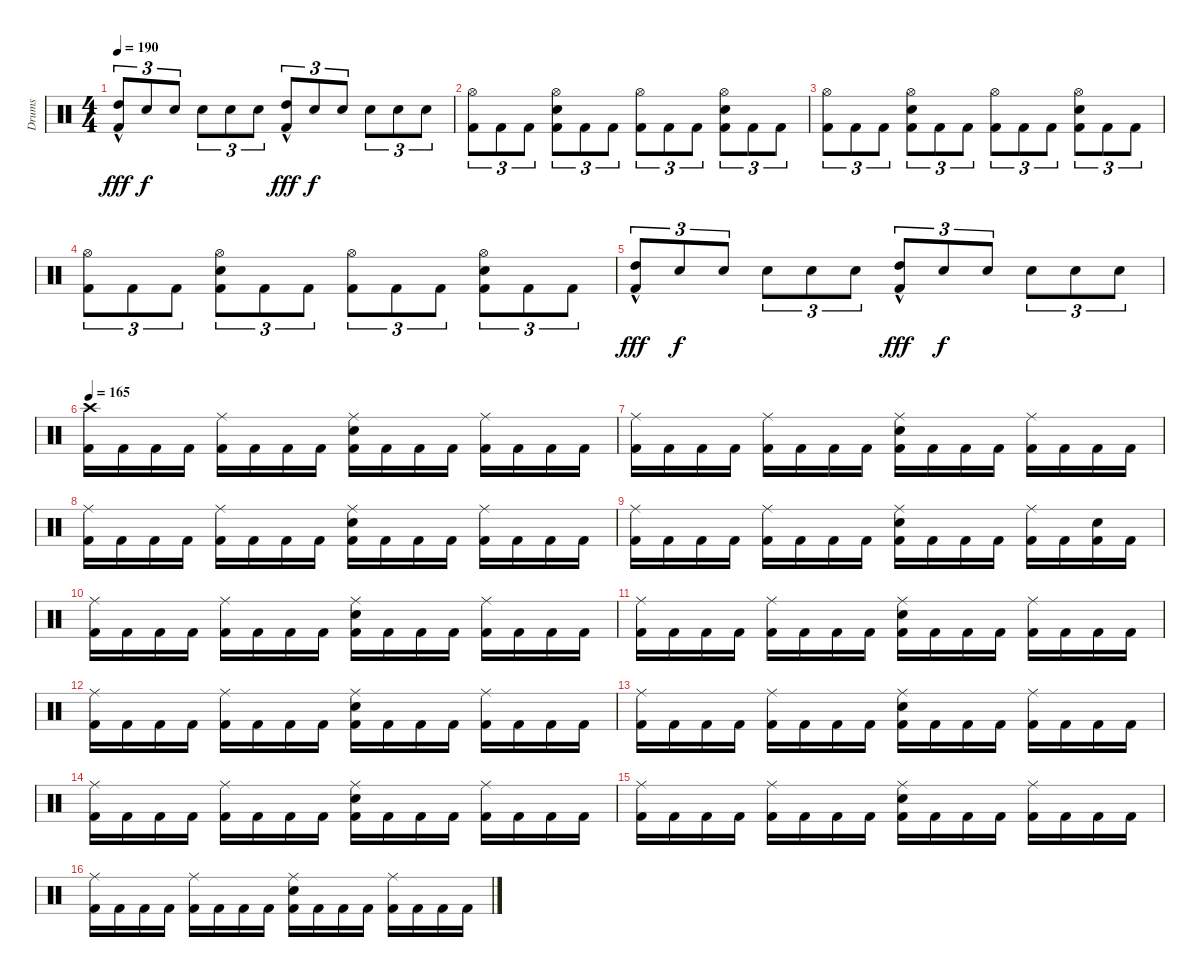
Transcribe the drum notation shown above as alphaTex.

\track ("Drums" "Drums") {instrument percussion}
\staff {score}
\articulation defaults
\ts (4 4)
\tempo 190
\clef neutral
\ks aminor
("Kick (hit) 2" "High Tom (hit)"{hac}).8{tu (3 2) dy fff} "Electric Snare (hit)".8{tu (3 2) dy f} "Electric Snare (hit)".8{tu (3 2)} "Electric Snare (hit)".8{tu (3 2)} "Electric Snare (hit)".8{tu (3 2)} "Electric Snare (hit)".8{tu (3 2)} ("Kick (hit) 2" "High Tom (hit)"{hac}).8{tu (3 2) dy fff} "Electric Snare (hit)".8{tu (3 2) dy f} "Electric Snare (hit)".8{tu (3 2)} "Electric Snare (hit)".8{tu (3 2)} "Electric Snare (hit)".8{tu (3 2)} "Electric Snare (hit)".8{tu (3 2)} |
("Kick (hit) 2" "Hi-Hat (open)").8{tu (3 2)} "Kick (hit) 2".8{tu (3 2)} "Kick (hit) 2".8{tu (3 2)} ("Kick (hit) 2" "Electric Snare (hit)" "Hi-Hat (open)").8{tu (3 2)} "Kick (hit) 2".8{tu (3 2)} "Kick (hit) 2".8{tu (3 2)} ("Kick (hit) 2" "Hi-Hat (open)").8{tu (3 2)} "Kick (hit) 2".8{tu (3 2)} "Kick (hit) 2".8{tu (3 2)} ("Kick (hit) 2" "Electric Snare (hit)" "Hi-Hat (open)").8{tu (3 2)} "Kick (hit) 2".8{tu (3 2)} "Kick (hit) 2".8{tu (3 2)} |
("Kick (hit) 2" "Hi-Hat (open)").8{tu (3 2)} "Kick (hit) 2".8{tu (3 2)} "Kick (hit) 2".8{tu (3 2)} ("Kick (hit) 2" "Electric Snare (hit)" "Hi-Hat (open)").8{tu (3 2)} "Kick (hit) 2".8{tu (3 2)} "Kick (hit) 2".8{tu (3 2)} ("Kick (hit) 2" "Hi-Hat (open)").8{tu (3 2)} "Kick (hit) 2".8{tu (3 2)} "Kick (hit) 2".8{tu (3 2)} ("Kick (hit) 2" "Electric Snare (hit)" "Hi-Hat (open)").8{tu (3 2)} "Kick (hit) 2".8{tu (3 2)} "Kick (hit) 2".8{tu (3 2)} |
("Kick (hit) 2" "Hi-Hat (open)").8{tu (3 2)} "Kick (hit) 2".8{tu (3 2)} "Kick (hit) 2".8{tu (3 2)} ("Kick (hit) 2" "Electric Snare (hit)" "Hi-Hat (open)").8{tu (3 2)} "Kick (hit) 2".8{tu (3 2)} "Kick (hit) 2".8{tu (3 2)} ("Kick (hit) 2" "Hi-Hat (open)").8{tu (3 2)} "Kick (hit) 2".8{tu (3 2)} "Kick (hit) 2".8{tu (3 2)} ("Kick (hit) 2" "Electric Snare (hit)" "Hi-Hat (open)").8{tu (3 2)} "Kick (hit) 2".8{tu (3 2)} "Kick (hit) 2".8{tu (3 2)} |
("Kick (hit) 2" "High Tom (hit)"{hac}).8{tu (3 2) dy fff} "Electric Snare (hit)".8{tu (3 2) dy f} "Electric Snare (hit)".8{tu (3 2)} "Electric Snare (hit)".8{tu (3 2)} "Electric Snare (hit)".8{tu (3 2)} "Electric Snare (hit)".8{tu (3 2)} ("Kick (hit) 2" "High Tom (hit)"{hac}).8{tu (3 2) dy fff} "Electric Snare (hit)".8{tu (3 2) dy f} "Electric Snare (hit)".8{tu (3 2)} "Electric Snare (hit)".8{tu (3 2)} "Electric Snare (hit)".8{tu (3 2)} "Electric Snare (hit)".8{tu (3 2)} |
\tempo 165
("Kick (hit) 2" "Crash high (hit)").16 "Kick (hit) 2".16 "Kick (hit) 2".16 "Kick (hit) 2".16 ("Kick (hit) 2" "Ride (middle)").16 "Kick (hit) 2".16 "Kick (hit) 2".16 "Kick (hit) 2".16 ("Kick (hit) 2" "Electric Snare (hit)" "Ride (middle)").16 "Kick (hit) 2".16 "Kick (hit) 2".16 "Kick (hit) 2".16 ("Kick (hit) 2" "Ride (middle)").16 "Kick (hit) 2".16 "Kick (hit) 2".16 "Kick (hit) 2".16 |
("Kick (hit) 2" "Ride (middle)").16 "Kick (hit) 2".16 "Kick (hit) 2".16 "Kick (hit) 2".16 ("Kick (hit) 2" "Ride (middle)").16 "Kick (hit) 2".16 "Kick (hit) 2".16 "Kick (hit) 2".16 ("Kick (hit) 2" "Electric Snare (hit)" "Ride (middle)").16 "Kick (hit) 2".16 "Kick (hit) 2".16 "Kick (hit) 2".16 ("Kick (hit) 2" "Ride (middle)").16 "Kick (hit) 2".16 "Kick (hit) 2".16 "Kick (hit) 2".16 |
("Kick (hit) 2" "Ride (middle)").16 "Kick (hit) 2".16 "Kick (hit) 2".16 "Kick (hit) 2".16 ("Kick (hit) 2" "Ride (middle)").16 "Kick (hit) 2".16 "Kick (hit) 2".16 "Kick (hit) 2".16 ("Kick (hit) 2" "Electric Snare (hit)" "Ride (middle)").16 "Kick (hit) 2".16 "Kick (hit) 2".16 "Kick (hit) 2".16 ("Kick (hit) 2" "Ride (middle)").16 "Kick (hit) 2".16 "Kick (hit) 2".16 "Kick (hit) 2".16 |
("Kick (hit) 2" "Ride (middle)").16 "Kick (hit) 2".16 "Kick (hit) 2".16 "Kick (hit) 2".16 ("Kick (hit) 2" "Ride (middle)").16 "Kick (hit) 2".16 "Kick (hit) 2".16 "Kick (hit) 2".16 ("Kick (hit) 2" "Electric Snare (hit)" "Ride (middle)").16 "Kick (hit) 2".16 "Kick (hit) 2".16 "Kick (hit) 2".16 ("Kick (hit) 2" "Ride (middle)").16 "Kick (hit) 2".16 ("Kick (hit) 2" "Electric Snare (hit)").16 "Kick (hit) 2".16 |
("Kick (hit) 2" "Ride (middle)").16 "Kick (hit) 2".16 "Kick (hit) 2".16 "Kick (hit) 2".16 ("Kick (hit) 2" "Ride (middle)").16 "Kick (hit) 2".16 "Kick (hit) 2".16 "Kick (hit) 2".16 ("Kick (hit) 2" "Electric Snare (hit)" "Ride (middle)").16 "Kick (hit) 2".16 "Kick (hit) 2".16 "Kick (hit) 2".16 ("Kick (hit) 2" "Ride (middle)").16 "Kick (hit) 2".16 "Kick (hit) 2".16 "Kick (hit) 2".16 |
("Kick (hit) 2" "Ride (middle)").16 "Kick (hit) 2".16 "Kick (hit) 2".16 "Kick (hit) 2".16 ("Kick (hit) 2" "Ride (middle)").16 "Kick (hit) 2".16 "Kick (hit) 2".16 "Kick (hit) 2".16 ("Kick (hit) 2" "Electric Snare (hit)" "Ride (middle)").16 "Kick (hit) 2".16 "Kick (hit) 2".16 "Kick (hit) 2".16 ("Kick (hit) 2" "Ride (middle)").16 "Kick (hit) 2".16 "Kick (hit) 2".16 "Kick (hit) 2".16 |
("Kick (hit) 2" "Ride (middle)").16 "Kick (hit) 2".16 "Kick (hit) 2".16 "Kick (hit) 2".16 ("Kick (hit) 2" "Ride (middle)").16 "Kick (hit) 2".16 "Kick (hit) 2".16 "Kick (hit) 2".16 ("Kick (hit) 2" "Electric Snare (hit)" "Ride (middle)").16 "Kick (hit) 2".16 "Kick (hit) 2".16 "Kick (hit) 2".16 ("Kick (hit) 2" "Ride (middle)").16 "Kick (hit) 2".16 "Kick (hit) 2".16 "Kick (hit) 2".16 |
("Kick (hit) 2" "Ride (middle)").16 "Kick (hit) 2".16 "Kick (hit) 2".16 "Kick (hit) 2".16 ("Kick (hit) 2" "Ride (middle)").16 "Kick (hit) 2".16 "Kick (hit) 2".16 "Kick (hit) 2".16 ("Kick (hit) 2" "Electric Snare (hit)" "Ride (middle)").16 "Kick (hit) 2".16 "Kick (hit) 2".16 "Kick (hit) 2".16 ("Kick (hit) 2" "Ride (middle)").16 "Kick (hit) 2".16 "Kick (hit) 2".16 "Kick (hit) 2".16 |
("Kick (hit) 2" "Ride (middle)").16 "Kick (hit) 2".16 "Kick (hit) 2".16 "Kick (hit) 2".16 ("Kick (hit) 2" "Ride (middle)").16 "Kick (hit) 2".16 "Kick (hit) 2".16 "Kick (hit) 2".16 ("Kick (hit) 2" "Electric Snare (hit)" "Ride (middle)").16 "Kick (hit) 2".16 "Kick (hit) 2".16 "Kick (hit) 2".16 ("Kick (hit) 2" "Ride (middle)").16 "Kick (hit) 2".16 "Kick (hit) 2".16 "Kick (hit) 2".16 |
("Kick (hit) 2" "Ride (middle)").16 "Kick (hit) 2".16 "Kick (hit) 2".16 "Kick (hit) 2".16 ("Kick (hit) 2" "Ride (middle)").16 "Kick (hit) 2".16 "Kick (hit) 2".16 "Kick (hit) 2".16 ("Kick (hit) 2" "Electric Snare (hit)" "Ride (middle)").16 "Kick (hit) 2".16 "Kick (hit) 2".16 "Kick (hit) 2".16 ("Kick (hit) 2" "Ride (middle)").16 "Kick (hit) 2".16 "Kick (hit) 2".16 "Kick (hit) 2".16 |
("Kick (hit) 2" "Ride (middle)").16 "Kick (hit) 2".16 "Kick (hit) 2".16 "Kick (hit) 2".16 ("Kick (hit) 2" "Ride (middle)").16 "Kick (hit) 2".16 "Kick (hit) 2".16 "Kick (hit) 2".16 ("Kick (hit) 2" "Electric Snare (hit)" "Ride (middle)").16 "Kick (hit) 2".16 "Kick (hit) 2".16 "Kick (hit) 2".16 ("Kick (hit) 2" "Ride (middle)").16 "Kick (hit) 2".16 "Kick (hit) 2".16 "Kick (hit) 2".16
